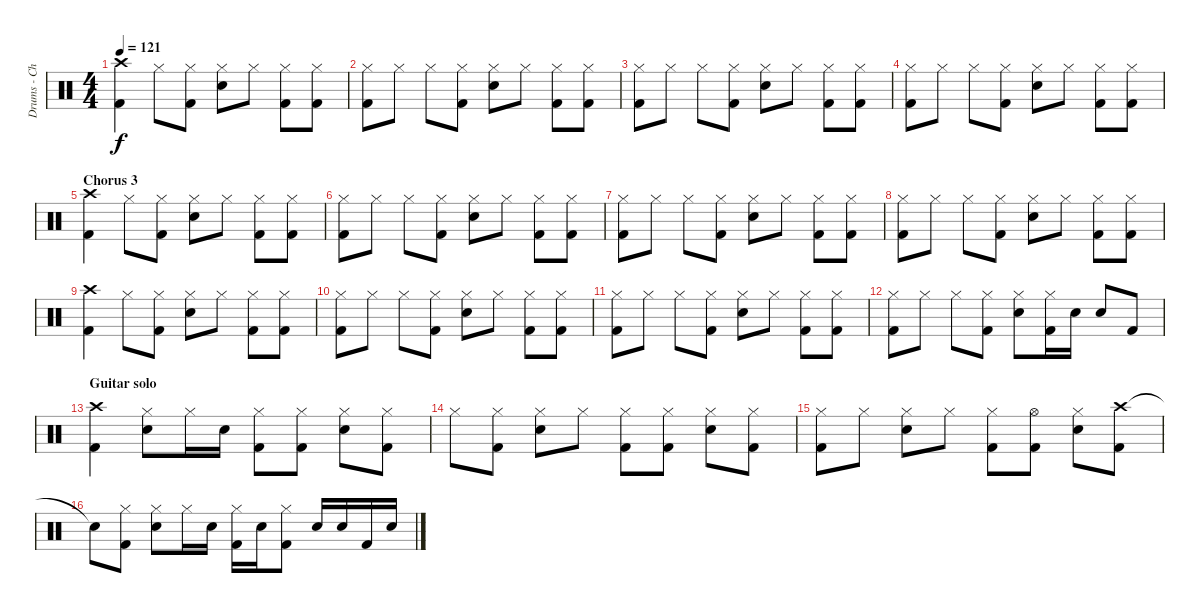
\track ("Drums - Chad" "Drums - Ch") {instrument percussion}
\staff {score}
\articulation defaults
\ts (4 4)
\tempo 121
\clef neutral
\ks c
("Crash high (hit)" "Kick (hit) 2").4{dy f} "Hi-Hat (closed)".8 ("Hi-Hat (closed)" "Kick (hit) 2").8 ("Hi-Hat (closed)" "Electric Snare (hit)").8 "Hi-Hat (closed)".8 ("Hi-Hat (closed)" "Kick (hit) 2").8 ("Hi-Hat (closed)" "Kick (hit) 2").8 |
("Hi-Hat (closed)" "Kick (hit) 2").8 "Hi-Hat (closed)".8 "Hi-Hat (closed)".8 ("Hi-Hat (closed)" "Kick (hit) 2").8 ("Hi-Hat (closed)" "Electric Snare (hit)").8 "Hi-Hat (closed)".8 ("Hi-Hat (closed)" "Kick (hit) 2").8 ("Hi-Hat (closed)" "Kick (hit) 2").8 |
("Hi-Hat (closed)" "Kick (hit) 2").8 "Hi-Hat (closed)".8 "Hi-Hat (closed)".8 ("Hi-Hat (closed)" "Kick (hit) 2").8 ("Hi-Hat (closed)" "Electric Snare (hit)").8 "Hi-Hat (closed)".8 ("Hi-Hat (closed)" "Kick (hit) 2").8 ("Hi-Hat (closed)" "Kick (hit) 2").8 |
("Hi-Hat (closed)" "Kick (hit) 2").8 "Hi-Hat (closed)".8 "Hi-Hat (closed)".8 ("Hi-Hat (closed)" "Kick (hit) 2").8 ("Hi-Hat (closed)" "Electric Snare (hit)").8 "Hi-Hat (closed)".8 ("Hi-Hat (closed)" "Kick (hit) 2").8 ("Hi-Hat (closed)" "Kick (hit) 2").8 |
\section ("" "Chorus 3")
("Crash high (hit)" "Kick (hit) 2").4 "Hi-Hat (closed)".8 ("Hi-Hat (closed)" "Kick (hit) 2").8 ("Hi-Hat (closed)" "Electric Snare (hit)").8 "Hi-Hat (closed)".8 ("Hi-Hat (closed)" "Kick (hit) 2").8 ("Hi-Hat (closed)" "Kick (hit) 2").8 |
("Hi-Hat (closed)" "Kick (hit) 2").8 "Hi-Hat (closed)".8 "Hi-Hat (closed)".8 ("Hi-Hat (closed)" "Kick (hit) 2").8 ("Hi-Hat (closed)" "Electric Snare (hit)").8 "Hi-Hat (closed)".8 ("Hi-Hat (closed)" "Kick (hit) 2").8 ("Hi-Hat (closed)" "Kick (hit) 2").8 |
("Hi-Hat (closed)" "Kick (hit) 2").8 "Hi-Hat (closed)".8 "Hi-Hat (closed)".8 ("Hi-Hat (closed)" "Kick (hit) 2").8 ("Hi-Hat (closed)" "Electric Snare (hit)").8 "Hi-Hat (closed)".8 ("Hi-Hat (closed)" "Kick (hit) 2").8 ("Hi-Hat (closed)" "Kick (hit) 2").8 |
("Hi-Hat (closed)" "Kick (hit) 2").8 "Hi-Hat (closed)".8 "Hi-Hat (closed)".8 ("Hi-Hat (closed)" "Kick (hit) 2").8 ("Hi-Hat (closed)" "Electric Snare (hit)").8 "Hi-Hat (closed)".8 ("Hi-Hat (closed)" "Kick (hit) 2").8 ("Hi-Hat (closed)" "Kick (hit) 2").8 |
("Crash high (hit)" "Kick (hit) 2").4 "Hi-Hat (closed)".8 ("Hi-Hat (closed)" "Kick (hit) 2").8 ("Hi-Hat (closed)" "Electric Snare (hit)").8 "Hi-Hat (closed)".8 ("Hi-Hat (closed)" "Kick (hit) 2").8 ("Hi-Hat (closed)" "Kick (hit) 2").8 |
("Hi-Hat (closed)" "Kick (hit) 2").8 "Hi-Hat (closed)".8 "Hi-Hat (closed)".8 ("Hi-Hat (closed)" "Kick (hit) 2").8 ("Hi-Hat (closed)" "Electric Snare (hit)").8 "Hi-Hat (closed)".8 ("Hi-Hat (closed)" "Kick (hit) 2").8 ("Hi-Hat (closed)" "Kick (hit) 2").8 |
("Hi-Hat (closed)" "Kick (hit) 2").8 "Hi-Hat (closed)".8 "Hi-Hat (closed)".8 ("Hi-Hat (closed)" "Kick (hit) 2").8 ("Hi-Hat (closed)" "Electric Snare (hit)").8 "Hi-Hat (closed)".8 ("Hi-Hat (closed)" "Kick (hit) 2").8 ("Hi-Hat (closed)" "Kick (hit) 2").8 |
("Hi-Hat (closed)" "Kick (hit) 2").8 "Hi-Hat (closed)".8 "Hi-Hat (closed)".8 ("Hi-Hat (closed)" "Kick (hit) 2").8 ("Hi-Hat (closed)" "Electric Snare (hit)").8 ("Hi-Hat (closed)" "Kick (hit) 2").16 "Electric Snare (hit)".16 "Electric Snare (hit)".8 "Kick (hit) 2".8 |
\section ("" "Guitar solo")
("Crash high (hit)" "Kick (hit) 2").4 ("Hi-Hat (closed)" "Electric Snare (hit)").8 "Hi-Hat (closed)".16 "Electric Snare (hit)".16 ("Hi-Hat (closed)" "Kick (hit) 2").8 ("Hi-Hat (closed)" "Kick (hit) 2").8 ("Hi-Hat (closed)" "Electric Snare (hit)").8 ("Hi-Hat (closed)" "Kick (hit) 2").8 |
"Hi-Hat (closed)".8 ("Hi-Hat (closed)" "Kick (hit) 2").8 ("Hi-Hat (closed)" "Electric Snare (hit)").8 "Hi-Hat (closed)".8 ("Hi-Hat (closed)" "Kick (hit) 2").8 ("Hi-Hat (closed)" "Kick (hit) 2").8 ("Hi-Hat (closed)" "Electric Snare (hit)").8 ("Hi-Hat (closed)" "Kick (hit) 2").8 |
("Hi-Hat (closed)" "Kick (hit) 2").8 "Hi-Hat (closed)".8 ("Hi-Hat (closed)" "Electric Snare (hit)").8 "Hi-Hat (closed)".8 ("Hi-Hat (closed)" "Kick (hit) 2").8 ("Hi-Hat (open)" "Kick (hit) 2").8 ("Hi-Hat (closed)" "Electric Snare (hit)").8 ("Crash high (hit)" "Kick (hit) 2").8 |
"Snare (hit)"{t}.8 ("Hi-Hat (closed)" "Kick (hit) 2").8 ("Hi-Hat (closed)" "Electric Snare (hit)").8 "Hi-Hat (closed)".16 "Electric Snare (hit)".16 ("Hi-Hat (closed)" "Kick (hit) 2").16 "Electric Snare (hit)".16 ("Hi-Hat (closed)" "Kick (hit) 2").8 "Electric Snare (hit)".16 "Electric Snare (hit)".16 "Kick (hit) 2".16 "Electric Snare (hit)".16
